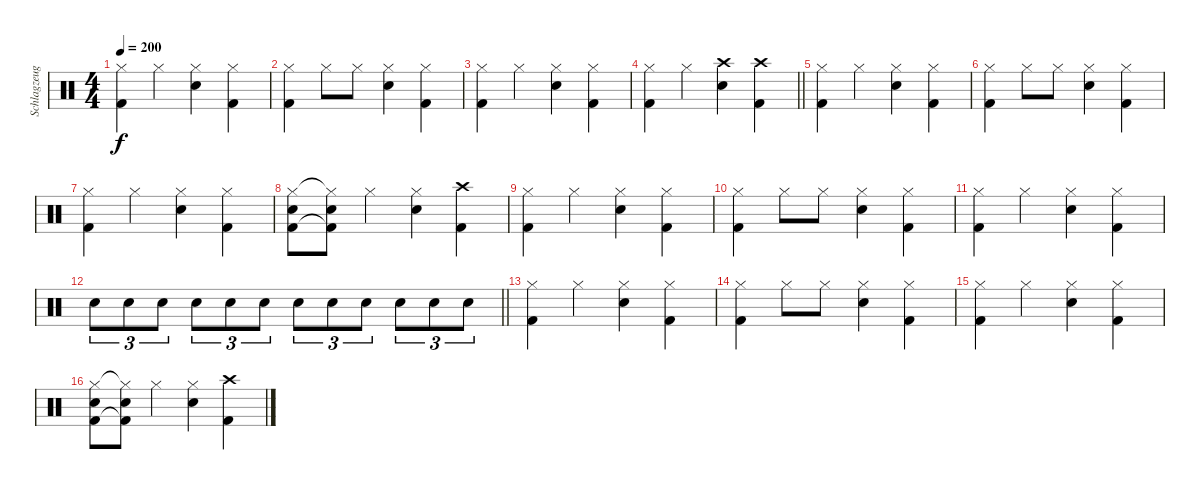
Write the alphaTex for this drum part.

\track ("Schlagzeug" "Schlagzeug") {instrument percussion}
\staff {score}
\articulation defaults
\ts (4 4)
\tempo 200
\clef neutral
\ks c
("Hi-Hat (closed)" "Kick (hit) 2").4{dy f} "Hi-Hat (closed)".4 ("Hi-Hat (closed)" "Snare (hit) 2").4 ("Hi-Hat (closed)" "Kick (hit) 2").4 |
("Hi-Hat (closed)" "Kick (hit) 2").4 "Hi-Hat (closed)".8 "Hi-Hat (closed)".8 ("Hi-Hat (closed)" "Snare (hit) 2").4 ("Hi-Hat (closed)" "Kick (hit) 2").4 |
("Hi-Hat (closed)" "Kick (hit) 2").4 "Hi-Hat (closed)".4 ("Hi-Hat (closed)" "Snare (hit) 2").4 ("Hi-Hat (closed)" "Kick (hit) 2").4 |
\barLineRight lightlight
("Hi-Hat (closed)" "Kick (hit) 2").4 "Hi-Hat (closed)".4 ("Crash high (hit)" "Snare (hit) 2").4 ("Crash high (hit)" "Kick (hit) 2").4 |
("Hi-Hat (closed)" "Kick (hit) 2").4 "Hi-Hat (closed)".4 ("Hi-Hat (closed)" "Snare (hit) 2").4 ("Hi-Hat (closed)" "Kick (hit) 2").4 |
("Hi-Hat (closed)" "Kick (hit) 2").4 "Hi-Hat (closed)".8 "Hi-Hat (closed)".8 ("Hi-Hat (closed)" "Snare (hit) 2").4 ("Hi-Hat (closed)" "Kick (hit) 2").4 |
("Hi-Hat (closed)" "Kick (hit) 2").4 "Hi-Hat (closed)".4 ("Hi-Hat (closed)" "Snare (hit) 2").4 ("Hi-Hat (closed)" "Kick (hit) 2").4 |
("Hi-Hat (closed)" "Snare (hit) 2" "Kick (hit) 2").8 ("Hi-Hat (closed)"{t} "Snare (hit) 2" "Kick (hit) 2"{t}).8 "Hi-Hat (closed)".4 ("Hi-Hat (closed)" "Snare (hit) 2").4 ("Crash high (hit)" "Kick (hit) 2").4 |
("Hi-Hat (closed)" "Kick (hit) 2").4 "Hi-Hat (closed)".4 ("Hi-Hat (closed)" "Snare (hit) 2").4 ("Hi-Hat (closed)" "Kick (hit) 2").4 |
("Hi-Hat (closed)" "Kick (hit) 2").4 "Hi-Hat (closed)".8 "Hi-Hat (closed)".8 ("Hi-Hat (closed)" "Snare (hit) 2").4 ("Hi-Hat (closed)" "Kick (hit) 2").4 |
("Hi-Hat (closed)" "Kick (hit) 2").4 "Hi-Hat (closed)".4 ("Hi-Hat (closed)" "Snare (hit) 2").4 ("Hi-Hat (closed)" "Kick (hit) 2").4 |
\barLineRight lightlight "Electric Snare (hit)".8{tu (3 2)} "Electric Snare (hit)".8{tu (3 2)} "Electric Snare (hit)".8{tu (3 2)} "Electric Snare (hit)".8{tu (3 2)} "Electric Snare (hit)".8{tu (3 2)} "Electric Snare (hit)".8{tu (3 2)} "Snare (hit) 2".8{tu (3 2)} "Snare (hit) 2".8{tu (3 2)} "Snare (hit) 2".8{tu (3 2)} "Snare (hit) 2".8{tu (3 2)} "Snare (hit) 2".8{tu (3 2)} "Snare (hit) 2".8{tu (3 2)}
|
("Hi-Hat (closed)" "Kick (hit) 2").4 "Hi-Hat (closed)".4 ("Hi-Hat (closed)" "Snare (hit) 2").4 ("Hi-Hat (closed)" "Kick (hit) 2").4 |
("Hi-Hat (closed)" "Kick (hit) 2").4 "Hi-Hat (closed)".8 "Hi-Hat (closed)".8 ("Hi-Hat (closed)" "Snare (hit) 2").4 ("Hi-Hat (closed)" "Kick (hit) 2").4 |
("Hi-Hat (closed)" "Kick (hit) 2").4 "Hi-Hat (closed)".4 ("Hi-Hat (closed)" "Snare (hit) 2").4 ("Hi-Hat (closed)" "Kick (hit) 2").4 |
("Hi-Hat (closed)" "Snare (hit) 2" "Kick (hit) 2").8 ("Hi-Hat (closed)"{t} "Snare (hit) 2" "Kick (hit) 2"{t}).8 "Hi-Hat (closed)".4 ("Hi-Hat (closed)" "Snare (hit) 2").4 ("Crash high (hit)" "Kick (hit) 2").4
